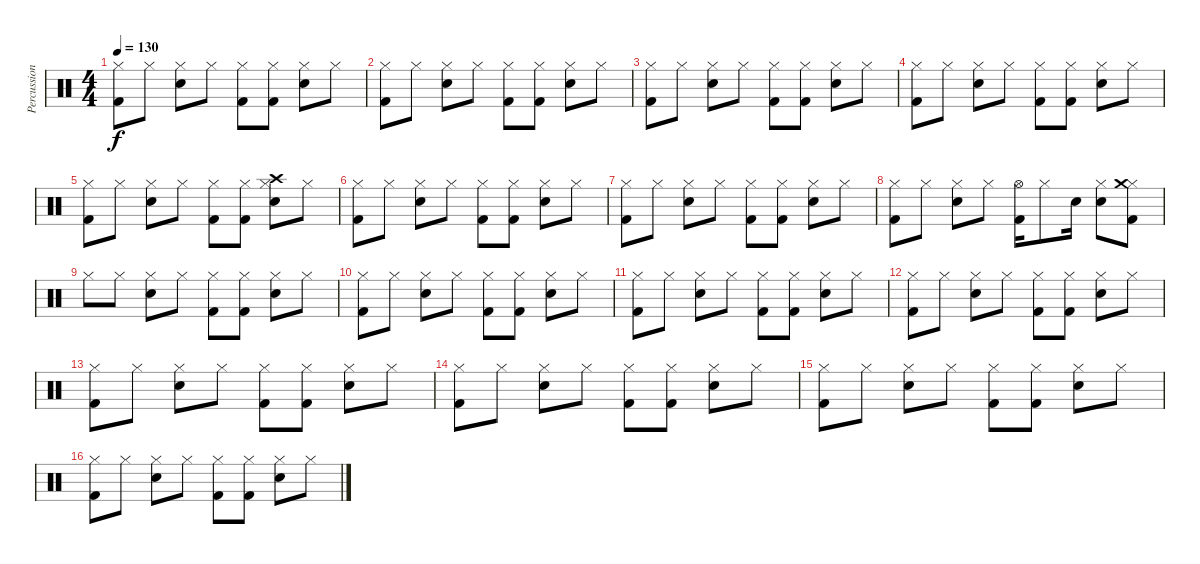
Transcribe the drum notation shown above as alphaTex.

\track ("Percussion" "Percussion") {instrument percussion}
\staff {score}
\articulation defaults
\ts (4 4)
\tempo 130
\clef neutral
\ks c
("Hi-Hat (closed)" "Kick (hit) 2").8{dy f} "Hi-Hat (closed)".8 ("Hi-Hat (closed)" "Metronome (bell)").8 "Hi-Hat (closed)".8 ("Hi-Hat (closed)" "Kick (hit) 2").8 ("Hi-Hat (closed)" "Kick (hit) 2").8 ("Hi-Hat (closed)" "Metronome (bell)").8 "Hi-Hat (closed)".8 |
("Hi-Hat (closed)" "Kick (hit) 2").8 "Hi-Hat (closed)".8 ("Hi-Hat (closed)" "Metronome (bell)").8 "Hi-Hat (closed)".8 ("Hi-Hat (closed)" "Kick (hit) 2").8 ("Hi-Hat (closed)" "Kick (hit) 2").8 ("Hi-Hat (closed)" "Metronome (bell)").8 "Hi-Hat (closed)".8 |
("Hi-Hat (closed)" "Kick (hit) 2").8 "Hi-Hat (closed)".8 ("Hi-Hat (closed)" "Metronome (bell)").8 "Hi-Hat (closed)".8 ("Hi-Hat (closed)" "Kick (hit) 2").8 ("Hi-Hat (closed)" "Kick (hit) 2").8 ("Hi-Hat (closed)" "Metronome (bell)").8 "Hi-Hat (closed)".8 |
("Hi-Hat (closed)" "Kick (hit) 2").8 "Hi-Hat (closed)".8 ("Hi-Hat (closed)" "Metronome (bell)").8 "Hi-Hat (closed)".8 ("Hi-Hat (closed)" "Kick (hit) 2").8 ("Hi-Hat (closed)" "Kick (hit) 2").8 ("Hi-Hat (closed)" "Metronome (bell)").8 "Hi-Hat (closed)".8 |
("Hi-Hat (closed)" "Kick (hit) 2").8 "Hi-Hat (closed)".8 ("Hi-Hat (closed)" "Metronome (bell)").8 "Hi-Hat (closed)".8 ("Hi-Hat (closed)" "Kick (hit) 2").8 ("Hi-Hat (closed)" "Kick (hit) 2").8 ("Hi-Hat (closed)" "Crash high (hit)" "Metronome (bell)").8 "Hi-Hat (closed)".8 |
("Hi-Hat (closed)" "Kick (hit) 2").8 "Hi-Hat (closed)".8 ("Hi-Hat (closed)" "Metronome (bell)").8 "Hi-Hat (closed)".8 ("Hi-Hat (closed)" "Kick (hit) 2").8 ("Hi-Hat (closed)" "Kick (hit) 2").8 ("Hi-Hat (closed)" "Metronome (bell)").8 "Hi-Hat (closed)".8 |
("Hi-Hat (closed)" "Kick (hit) 2").8 "Hi-Hat (closed)".8 ("Hi-Hat (closed)" "Metronome (bell)").8 "Hi-Hat (closed)".8 ("Hi-Hat (closed)" "Kick (hit) 2").8 ("Hi-Hat (closed)" "Kick (hit) 2").8 ("Hi-Hat (closed)" "Metronome (bell)").8 "Hi-Hat (closed)".8 |
("Hi-Hat (closed)" "Kick (hit) 2").8 "Hi-Hat (closed)".8 ("Hi-Hat (closed)" "Metronome (bell)").8 "Hi-Hat (closed)".8 ("Hi-Hat (open)" "Kick (hit) 2").16 "Hi-Hat (closed)".8 "Metronome (bell)".16 ("Hi-Hat (closed)" "Metronome (bell)").8 ("Hi-Hat (closed)" "Crash medium (hit)" "Kick (hit) 2").8 |
"Hi-Hat (closed)".8 "Hi-Hat (closed)".8 ("Hi-Hat (closed)" "Metronome (bell)").8 "Hi-Hat (closed)".8 ("Hi-Hat (closed)" "Kick (hit) 2").8 ("Hi-Hat (closed)" "Kick (hit) 2").8 ("Hi-Hat (closed)" "Metronome (bell)").8 "Hi-Hat (closed)".8 |
("Hi-Hat (closed)" "Kick (hit) 2").8 "Hi-Hat (closed)".8 ("Hi-Hat (closed)" "Metronome (bell)").8 "Hi-Hat (closed)".8 ("Hi-Hat (closed)" "Kick (hit) 2").8 ("Hi-Hat (closed)" "Kick (hit) 2").8 ("Hi-Hat (closed)" "Metronome (bell)").8 "Hi-Hat (closed)".8 |
("Hi-Hat (closed)" "Kick (hit) 2").8 "Hi-Hat (closed)".8 ("Hi-Hat (closed)" "Metronome (bell)").8 "Hi-Hat (closed)".8 ("Hi-Hat (closed)" "Kick (hit) 2").8 ("Hi-Hat (closed)" "Kick (hit) 2").8 ("Hi-Hat (closed)" "Metronome (bell)").8 "Hi-Hat (closed)".8 |
("Hi-Hat (closed)" "Kick (hit) 2").8 "Hi-Hat (closed)".8 ("Hi-Hat (closed)" "Metronome (bell)").8 "Hi-Hat (closed)".8 ("Hi-Hat (closed)" "Kick (hit) 2").8 ("Hi-Hat (closed)" "Kick (hit) 2").8 ("Hi-Hat (closed)" "Metronome (bell)").8 "Hi-Hat (closed)".8 |
("Hi-Hat (closed)" "Kick (hit) 2").8 "Hi-Hat (closed)".8 ("Hi-Hat (closed)" "Metronome (bell)").8 "Hi-Hat (closed)".8 ("Hi-Hat (closed)" "Kick (hit) 2").8 ("Hi-Hat (closed)" "Kick (hit) 2").8 ("Hi-Hat (closed)" "Metronome (bell)").8 "Hi-Hat (closed)".8 |
("Hi-Hat (closed)" "Kick (hit) 2").8 "Hi-Hat (closed)".8 ("Hi-Hat (closed)" "Metronome (bell)").8 "Hi-Hat (closed)".8 ("Hi-Hat (closed)" "Kick (hit) 2").8 ("Hi-Hat (closed)" "Kick (hit) 2").8 ("Hi-Hat (closed)" "Metronome (bell)").8 "Hi-Hat (closed)".8 |
("Hi-Hat (closed)" "Kick (hit) 2").8 "Hi-Hat (closed)".8 ("Hi-Hat (closed)" "Metronome (bell)").8 "Hi-Hat (closed)".8 ("Hi-Hat (closed)" "Kick (hit) 2").8 ("Hi-Hat (closed)" "Kick (hit) 2").8 ("Hi-Hat (closed)" "Metronome (bell)").8 "Hi-Hat (closed)".8 |
("Hi-Hat (closed)" "Kick (hit) 2").8 "Hi-Hat (closed)".8 ("Hi-Hat (closed)" "Metronome (bell)").8 "Hi-Hat (closed)".8 ("Hi-Hat (closed)" "Kick (hit) 2").8 ("Hi-Hat (closed)" "Kick (hit) 2").8 ("Hi-Hat (closed)" "Metronome (bell)").8 "Hi-Hat (closed)".8
